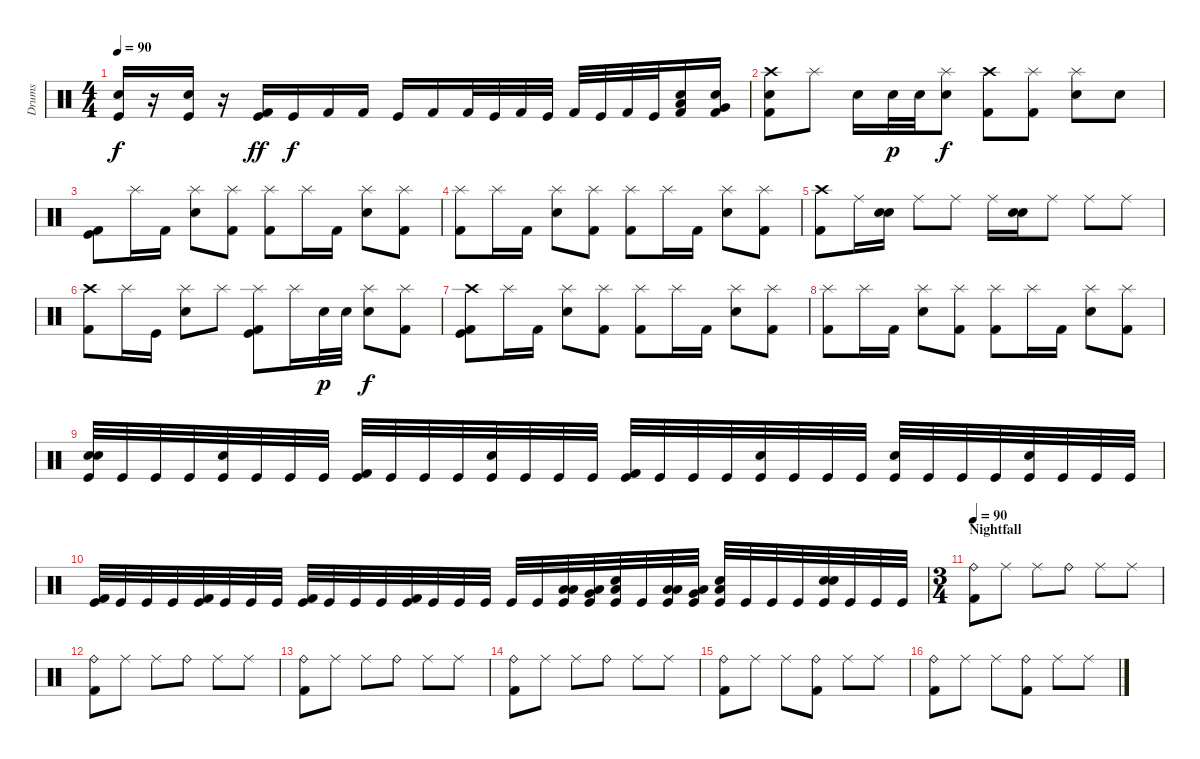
\track ("Drums" "Drums") {instrument percussion}
\staff {score}
\articulation defaults
\ts (4 4)
\tempo 90
\clef neutral
\ks c
("Snare (hit) 2" "Kick (hit)").16{dy f} r.16 ("Snare (hit) 2" "Kick (hit)").16 r.16 ("Kick (hit) 2" "Kick (hit)").16{dy ff} "Kick (hit)".16{dy f} "Kick (hit) 2".16 "Kick (hit) 2".16 "Kick (hit)".16 "Kick (hit) 2".16 "Kick (hit) 2".32 "Kick (hit)".32 "Kick (hit) 2".32 "Kick (hit)".32 "Kick (hit) 2".32 "Kick (hit)".32 "Kick (hit) 2".32 "Kick (hit)".32 ("Kick (hit) 2" "Snare (hit) 2" "Low Floor Tom (hit)").16 ("Kick (hit) 2" "Snare (hit) 2" "Very Low Tom (hit)").16 |
("Kick (hit) 2" "Snare (hit) 2" "Crash high (hit)").8 "Splash (hit)".8 "Snare (hit) 2".16 "Snare (hit) 2".32{dy p} "Snare (hit) 2".32 ("Splash (hit)" "Snare (hit) 2").8{dy f} ("Kick (hit) 2" "Crash high (hit)").8 ("Splash (hit)" "Kick (hit) 2").8 ("Splash (hit)" "Snare (hit) 2").8 "Snare (hit) 2".8 |
("Kick (hit) 2" "Kick (hit)").8 "Splash (hit)".16 "Kick (hit) 2".16 ("Splash (hit)" "Snare (hit) 2").8 ("Splash (hit)" "Kick (hit) 2").8 ("Splash (hit)" "Kick (hit) 2").8 "Splash (hit)".16 "Kick (hit) 2".16 ("Splash (hit)" "Snare (hit) 2").8 ("Splash (hit)" "Kick (hit) 2").8 |
("Splash (hit)" "Kick (hit) 2").8 "Splash (hit)".16 "Kick (hit) 2".16 ("Splash (hit)" "Snare (hit) 2").8 ("Splash (hit)" "Kick (hit) 2").8 ("Splash (hit)" "Kick (hit) 2").8 "Splash (hit)".16 "Kick (hit) 2".16 ("Splash (hit)" "Snare (hit) 2").8 ("Splash (hit)" "Kick (hit) 2").8 |
("Kick (hit) 2" "Crash high (hit)").8 "Ride (middle)".16 ("Electric Snare (hit)" "Snare (hit) 2").16 "Ride (middle)".8 "Ride (middle)".8 "Ride (middle)".16 ("Electric Snare (hit)" "Snare (hit) 2").16 "Ride (middle)".8 "Ride (middle)".8 "Ride (middle)".8 |
("Kick (hit) 2" "Crash high (hit)").8 "Splash (hit)".16 "Kick (hit)".16 ("Splash (hit)" "Snare (hit) 2").8 "Splash (hit)".8 ("Splash (hit)" "Kick (hit) 2" "Kick (hit)").8 "Splash (hit)".16 "Snare (hit) 2".32{dy p} "Snare (hit) 2".32 ("Splash (hit)" "Snare (hit) 2").8{dy f} ("Splash (hit)" "Kick (hit) 2").8 |
("Kick (hit) 2" "Kick (hit)" "Crash high (hit)").8 "Splash (hit)".16 "Kick (hit) 2".16 ("Splash (hit)" "Snare (hit) 2").8 ("Splash (hit)" "Kick (hit) 2").8 ("Splash (hit)" "Kick (hit) 2").8 "Splash (hit)".16 "Kick (hit) 2".16 ("Splash (hit)" "Snare (hit) 2").8 ("Splash (hit)" "Kick (hit) 2").8 |
("Splash (hit)" "Kick (hit) 2").8 "Splash (hit)".16 "Kick (hit) 2".16 ("Splash (hit)" "Snare (hit) 2").8 ("Splash (hit)" "Kick (hit) 2").8 ("Splash (hit)" "Kick (hit) 2").8 "Splash (hit)".16 "Kick (hit) 2".16 ("Splash (hit)" "Snare (hit) 2").8 ("Splash (hit)" "Kick (hit) 2").8 |
("Kick (hit)" "Snare (hit) 2" "Electric Snare (hit)").32 "Kick (hit)".32 "Kick (hit)".32 "Kick (hit)".32 ("Kick (hit)" "Snare (hit) 2").32 "Kick (hit)".32 "Kick (hit)".32 "Kick (hit)".32 ("Kick (hit)" "Kick (hit) 2").32 "Kick (hit)".32 "Kick (hit)".32 "Kick (hit)".32 ("Kick (hit)" "Snare (hit) 2").32 "Kick (hit)".32 "Kick (hit)".32 "Kick (hit)".32 ("Kick (hit)" "Kick (hit) 2").32 "Kick (hit)".32 "Kick (hit)".32 "Kick (hit)".32 ("Kick (hit)" "Snare (hit) 2").32 "Kick (hit)".32 "Kick (hit)".32 "Kick (hit)".32 ("Kick (hit)" "Snare (hit) 2").32 "Kick (hit)".32 "Kick (hit)".32 "Kick (hit)".32 ("Kick (hit)" "Snare (hit) 2").32 "Kick (hit)".32 "Kick (hit)".32 "Kick (hit)".32 |
("Kick (hit)" "Kick (hit) 2").32 "Kick (hit)".32 "Kick (hit)".32 "Kick (hit)".32 ("Kick (hit)" "Kick (hit) 2").32 "Kick (hit)".32 "Kick (hit)".32 "Kick (hit)".32 ("Kick (hit)" "Kick (hit) 2").32 "Kick (hit)".32 "Kick (hit)".32 "Kick (hit)".32 ("Kick (hit)" "Kick (hit) 2").32 "Kick (hit)".32 "Kick (hit)".32 "Kick (hit)".32 "Kick (hit)".32 "Kick (hit)".32 ("Kick (hit)" "Low Floor Tom (hit)" "Low Tom (hit)").32 ("Kick (hit)" "Very Low Tom (hit)" "Low Tom (hit)").32 ("Kick (hit)" "Electric Snare (hit)" "Low Tom (hit)").32 "Kick (hit)".32 ("Kick (hit)" "Low Floor Tom (hit)" "Low Tom (hit)").32 ("Kick (hit)" "Very Low Tom (hit)" "Low Tom (hit)").32 ("Kick (hit)" "Electric Snare (hit)" "Low Tom (hit)").32 "Kick (hit)".32 "Kick (hit)".32 "Kick (hit)".32 ("Kick (hit)" "Snare (hit) 2" "Electric Snare (hit)").32 "Kick (hit)".32 "Kick (hit)".32 "Kick (hit)".32 |
\ts (3 4)
\section ("" "Nightfall")
\tempo 90
("Ride (bell)" "Kick (hit) 2").8 "Ride (middle)".8 "Ride (middle)".8 "Ride (bell)".8 "Ride (middle)".8 "Ride (middle)".8 |
("Ride (bell)" "Kick (hit) 2").8 "Ride (middle)".8 "Ride (middle)".8 "Ride (bell)".8 "Ride (middle)".8 "Ride (middle)".8 |
("Ride (bell)" "Kick (hit) 2").8 "Ride (middle)".8 "Ride (middle)".8 "Ride (bell)".8 "Ride (middle)".8 "Ride (middle)".8 |
("Ride (bell)" "Kick (hit) 2").8 "Ride (middle)".8 "Ride (middle)".8 "Ride (bell)".8 "Ride (middle)".8 "Ride (middle)".8 |
("Ride (bell)" "Kick (hit) 2").8 "Ride (middle)".8 "Ride (middle)".8 ("Ride (bell)" "Kick (hit) 2").8 "Ride (middle)".8 "Ride (middle)".8 |
("Ride (bell)" "Kick (hit) 2").8 "Ride (middle)".8 "Ride (middle)".8 ("Ride (bell)" "Kick (hit) 2").8 "Ride (middle)".8 "Ride (middle)".8
